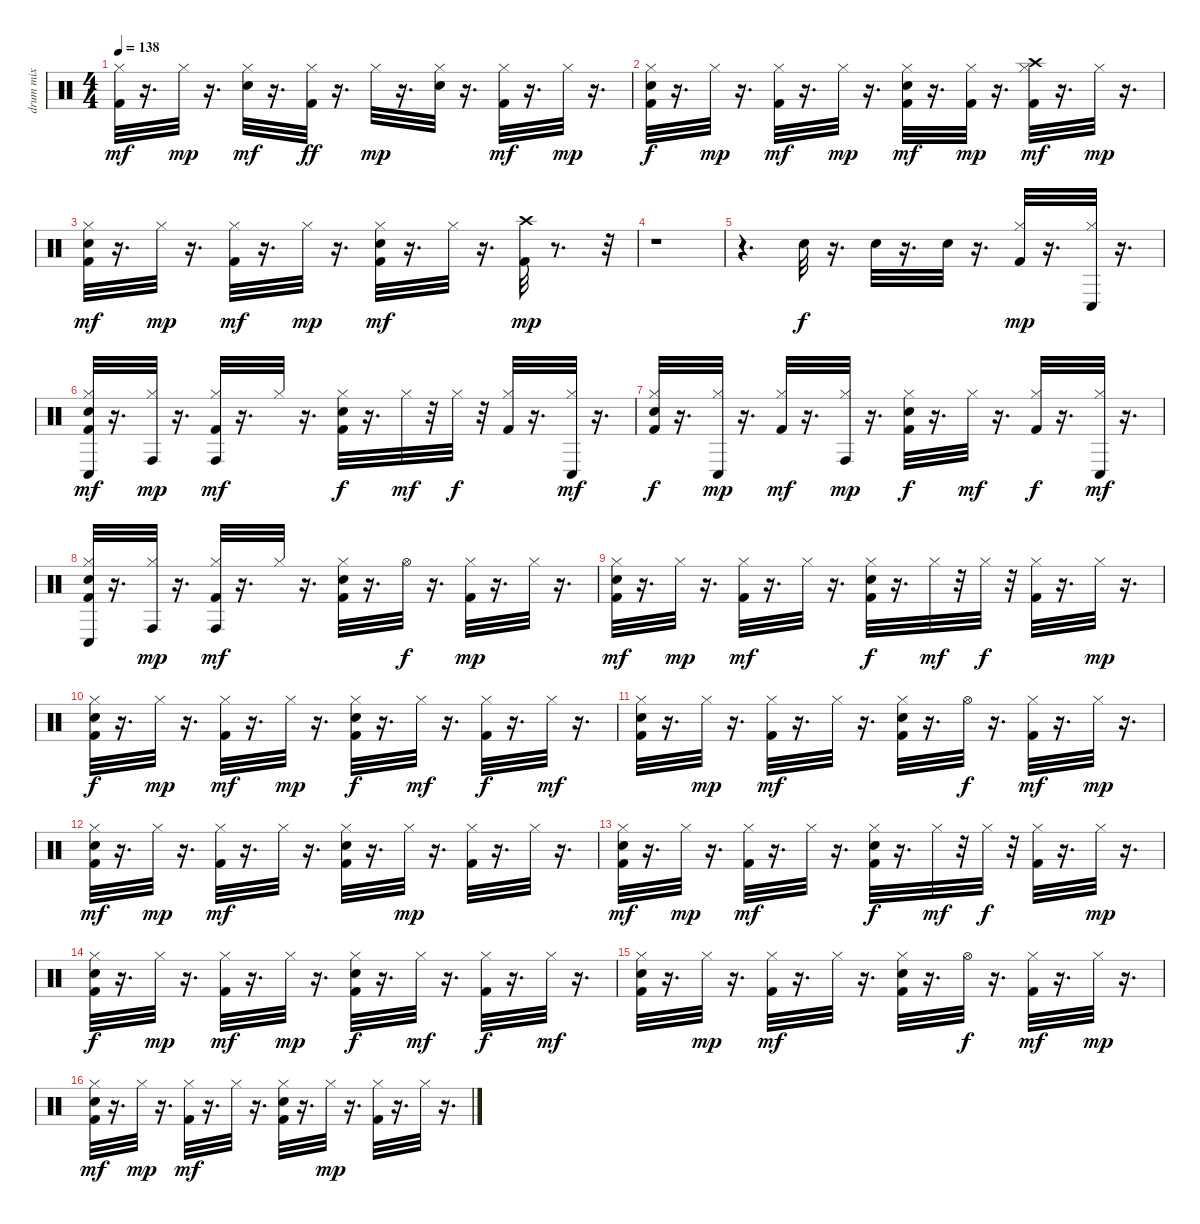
\track ("drum mix" "drum mix") {instrument percussion}
\staff {score}
\articulation defaults
\ts (4 4)
\tempo 138
\clef neutral
\ks c
("Hi-Hat (closed)" "Kick (hit) 2").32{dy mf} r.16{d} "Hi-Hat (closed)".32{dy mp} r.16{d} ("Snare (hit) 2" "Hi-Hat (closed)").32{dy mf} r.16{d} ("Hi-Hat (closed)" "Kick (hit) 2").32{dy ff} r.16{d} "Hi-Hat (closed)".32{dy mp} r.16{d} ("Snare (hit) 2" "Hi-Hat (closed)").32 r.16{d} ("Hi-Hat (closed)" "Kick (hit) 2").32{dy mf} r.16{d} "Hi-Hat (closed)".32{dy mp} r.16{d} |
("Snare (hit) 2" "Hi-Hat (closed)" "Kick (hit) 2").32{dy f} r.16{d} "Hi-Hat (closed)".32{dy mp} r.16{d} ("Hi-Hat (closed)" "Kick (hit) 2").32{dy mf} r.16{d} "Hi-Hat (closed)".32{dy mp} r.16{d} ("Snare (hit) 2" "Hi-Hat (closed)" "Kick (hit) 2").32{dy mf} r.16{d} ("Hi-Hat (closed)" "Kick (hit) 2").32{dy mp} r.16{d} ("Hi-Hat (closed)" "Crash high (hit)" "Kick (hit) 2").32{dy mf} r.16{d} "Hi-Hat (closed)".32{dy mp} r.16{d} |
("Snare (hit) 2" "Hi-Hat (closed)" "Kick (hit) 2").32{dy mf} r.16{d} "Hi-Hat (closed)".32{dy mp} r.16{d} ("Hi-Hat (closed)" "Kick (hit) 2").32{dy mf} r.16{d} "Hi-Hat (closed)".32{dy mp} r.16{d} ("Snare (hit) 2" "Hi-Hat (closed)" "Kick (hit) 2").32{dy mf} r.16{d} "Hi-Hat (closed)".32 r.16{d} ("Crash high (hit)" "Kick (hit) 2").32{dy mp} r.8{d} r.32 |
r.1 |
r.4{d} "Snare (hit) 2".32{dy f} r.16{d} "Snare (hit) 2".32 r.16{d} "Snare (hit) 2".32 r.16{d} ("Hi-Hat (closed)" "Kick (hit) 2").32{dy mp} r.16{d} ("Hi-Hat (closed)" "Conga low (hit)").32 r.16{d} |
("Snare (hit) 2" "Hi-Hat (closed)" "Conga low (hit)" "Kick (hit) 2").32{dy mf} r.16{d} ("Hi-Hat (closed)" "Conga high (hit)").32{dy mp} r.16{d} ("Hi-Hat (closed)" "Conga high (hit)" "Kick (hit) 2").32{dy mf} r.16{d} "Hi-Hat (closed)".32 r.16{d} ("Snare (hit) 2" "Hi-Hat (closed)" "Kick (hit) 2").32{dy f} r.16{d} "Hi-Hat (closed)".32{dy mf} r.32 "Hi-Hat (closed)".32{dy f} r.32 ("Hi-Hat (closed)" "Kick (hit) 2").32 r.16{d} ("Hi-Hat (closed)" "Conga low (hit)").32{dy mf} r.16{d} |
("Snare (hit) 2" "Hi-Hat (closed)" "Kick (hit) 2").32{dy f} r.16{d} ("Hi-Hat (closed)" "Conga low (hit)").32{dy mp} r.16{d} ("Hi-Hat (closed)" "Kick (hit) 2").32{dy mf} r.16{d} ("Hi-Hat (closed)" "Conga high (hit)").32{dy mp} r.16{d} ("Snare (hit) 2" "Hi-Hat (closed)" "Kick (hit) 2").32{dy f} r.16{d} "Hi-Hat (closed)".32{dy mf} r.16{d} ("Hi-Hat (closed)" "Kick (hit) 2").32{dy f} r.16{d} ("Hi-Hat (closed)" "Conga low (hit)").32{dy mf} r.16{d} |
("Snare (hit) 2" "Hi-Hat (closed)" "Conga low (hit)" "Kick (hit) 2").32 r.16{d} ("Hi-Hat (closed)" "Conga high (hit)").32{dy mp} r.16{d} ("Hi-Hat (closed)" "Conga high (hit)" "Kick (hit) 2").32{dy mf} r.16{d} "Hi-Hat (closed)".32 r.16{d} ("Snare (hit) 2" "Hi-Hat (closed)" "Kick (hit) 2").32 r.16{d} "Hi-Hat (open)".32{dy f} r.16{d} ("Hi-Hat (closed)" "Kick (hit) 2").32{dy mp} r.16{d} "Hi-Hat (closed)".32 r.16{d} |
("Snare (hit) 2" "Hi-Hat (closed)" "Kick (hit) 2").32{dy mf} r.16{d} "Hi-Hat (closed)".32{dy mp} r.16{d} ("Hi-Hat (closed)" "Kick (hit) 2").32{dy mf} r.16{d} "Hi-Hat (closed)".32 r.16{d} ("Snare (hit) 2" "Hi-Hat (closed)" "Kick (hit) 2").32{dy f} r.16{d} "Hi-Hat (closed)".32{dy mf} r.32 "Hi-Hat (closed)".32{dy f} r.32 ("Hi-Hat (closed)" "Kick (hit) 2").32 r.16{d} "Hi-Hat (closed)".32{dy mp} r.16{d} |
("Snare (hit) 2" "Hi-Hat (closed)" "Kick (hit) 2").32{dy f} r.16{d} "Hi-Hat (closed)".32{dy mp} r.16{d} ("Hi-Hat (closed)" "Kick (hit) 2").32{dy mf} r.16{d} "Hi-Hat (closed)".32{dy mp} r.16{d} ("Snare (hit) 2" "Hi-Hat (closed)" "Kick (hit) 2").32{dy f} r.16{d} "Hi-Hat (closed)".32{dy mf} r.16{d} ("Hi-Hat (closed)" "Kick (hit) 2").32{dy f} r.16{d} "Hi-Hat (closed)".32{dy mf} r.16{d} |
("Snare (hit) 2" "Hi-Hat (closed)" "Kick (hit) 2").32 r.16{d} "Hi-Hat (closed)".32{dy mp} r.16{d} ("Hi-Hat (closed)" "Kick (hit) 2").32{dy mf} r.16{d} "Hi-Hat (closed)".32 r.16{d} ("Snare (hit) 2" "Hi-Hat (closed)" "Kick (hit) 2").32 r.16{d} "Hi-Hat (open)".32{dy f} r.16{d} ("Hi-Hat (closed)" "Kick (hit) 2").32{dy mf} r.16{d} "Hi-Hat (closed)".32{dy mp} r.16{d} |
("Snare (hit) 2" "Hi-Hat (closed)" "Kick (hit) 2").32{dy mf} r.16{d} "Hi-Hat (closed)".32{dy mp} r.16{d} ("Hi-Hat (closed)" "Kick (hit) 2").32{dy mf} r.16{d} "Hi-Hat (closed)".32 r.16{d} ("Snare (hit) 2" "Hi-Hat (closed)" "Kick (hit) 2").32 r.16{d} "Hi-Hat (closed)".32{dy mp} r.16{d} ("Hi-Hat (closed)" "Kick (hit) 2").32 r.16{d} "Hi-Hat (closed)".32 r.16{d} |
("Snare (hit) 2" "Hi-Hat (closed)" "Kick (hit) 2").32{dy mf} r.16{d} "Hi-Hat (closed)".32{dy mp} r.16{d} ("Hi-Hat (closed)" "Kick (hit) 2").32{dy mf} r.16{d} "Hi-Hat (closed)".32 r.16{d} ("Snare (hit) 2" "Hi-Hat (closed)" "Kick (hit) 2").32{dy f} r.16{d} "Hi-Hat (closed)".32{dy mf} r.32 "Hi-Hat (closed)".32{dy f} r.32 ("Hi-Hat (closed)" "Kick (hit) 2").32 r.16{d} "Hi-Hat (closed)".32{dy mp} r.16{d} |
("Snare (hit) 2" "Hi-Hat (closed)" "Kick (hit) 2").32{dy f} r.16{d} "Hi-Hat (closed)".32{dy mp} r.16{d} ("Hi-Hat (closed)" "Kick (hit) 2").32{dy mf} r.16{d} "Hi-Hat (closed)".32{dy mp} r.16{d} ("Snare (hit) 2" "Hi-Hat (closed)" "Kick (hit) 2").32{dy f} r.16{d} "Hi-Hat (closed)".32{dy mf} r.16{d} ("Hi-Hat (closed)" "Kick (hit) 2").32{dy f} r.16{d} "Hi-Hat (closed)".32{dy mf} r.16{d} |
("Snare (hit) 2" "Hi-Hat (closed)" "Kick (hit) 2").32 r.16{d} "Hi-Hat (closed)".32{dy mp} r.16{d} ("Hi-Hat (closed)" "Kick (hit) 2").32{dy mf} r.16{d} "Hi-Hat (closed)".32 r.16{d} ("Snare (hit) 2" "Hi-Hat (closed)" "Kick (hit) 2").32 r.16{d} "Hi-Hat (open)".32{dy f} r.16{d} ("Hi-Hat (closed)" "Kick (hit) 2").32{dy mf} r.16{d} "Hi-Hat (closed)".32{dy mp} r.16{d} |
("Snare (hit) 2" "Hi-Hat (closed)" "Kick (hit) 2").32{dy mf} r.16{d} "Hi-Hat (closed)".32{dy mp} r.16{d} ("Hi-Hat (closed)" "Kick (hit) 2").32{dy mf} r.16{d} "Hi-Hat (closed)".32 r.16{d} ("Snare (hit) 2" "Hi-Hat (closed)" "Kick (hit) 2").32 r.16{d} "Hi-Hat (closed)".32{dy mp} r.16{d} ("Hi-Hat (closed)" "Kick (hit) 2").32 r.16{d} "Hi-Hat (closed)".32 r.16{d}
